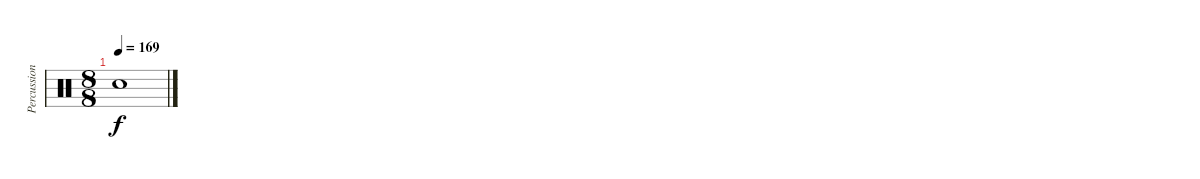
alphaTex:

\track ("Percussion" "Percussion") {instrument percussion}
\staff {score}
\articulation defaults
\ts (8 8)
\tempo 169
\clef neutral
\ks c "Snare (hit) 2".1{dy f}
